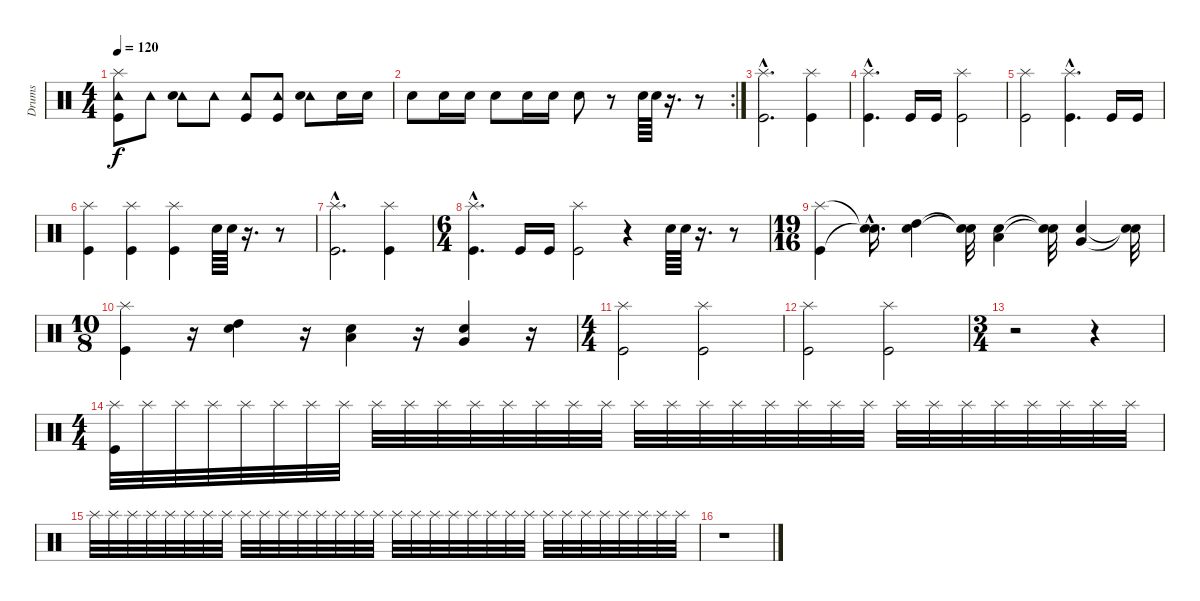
\track ("Drums" "Drums") {instrument percussion}
\staff {score}
\articulation defaults
\ts (4 4)
\tempo 120
\clef neutral
\ks c
("Tambourine (hit)" "Kick (hit)" "Splash (hit)").8{dy f} "Tambourine (hit)".8 ("Tambourine (hit)" "Snare (hit) 2").8 "Tambourine (hit)".8 ("Tambourine (hit)" "Kick (hit)").8 ("Tambourine (hit)" "Kick (hit)").8 ("Tambourine (hit)" "Snare (hit) 2").8 "Snare (hit) 2".16 "Snare (hit) 2".16 |
\rc 2 "Snare (hit) 2".8 "Snare (hit) 2".16 "Snare (hit) 2".16 "Snare (hit) 2".8 "Snare (hit) 2".16 "Snare (hit) 2".16 "Snare (hit) 2".8
r.8 "Snare (hit) 2".64 "Snare (hit) 2".64 r.16{d} r.8 |
("Splash (hit)"{hac} "Kick (hit)"{hac}).2{d} ("Splash (hit)" "Kick (hit)").4 |
("Splash (hit)"{hac} "Kick (hit)"{hac}).4{d} "Kick (hit)".16 "Kick (hit)".16 ("Splash (hit)" "Kick (hit)").2 |
("Splash (hit)" "Kick (hit)").2 ("Splash (hit)"{hac} "Kick (hit)"{hac}).4{d} "Kick (hit)".16 "Kick (hit)".16 |
("Splash (hit)" "Kick (hit)").4 ("Splash (hit)" "Kick (hit)").4 ("Splash (hit)" "Kick (hit)").4 "Snare (hit) 2".64 "Snare (hit) 2".64 r.16{d} r.8 |
("Splash (hit)"{hac} "Kick (hit)"{hac}).2{d} ("Splash (hit)" "Kick (hit)").4 |
\ts (6 4)
("Splash (hit)"{hac} "Kick (hit)"{hac}).4{d} "Kick (hit)".16 "Kick (hit)".16 ("Splash (hit)" "Kick (hit)").2 r.4 "Snare (hit) 2".64 "Snare (hit) 2".64 r.16{d} r.8 |
\ts (19 16)
("Splash (hit)" "Kick (hit)").4 ("Snare (hit)"{hac t} "Snare (hit) 2"{hac t}).16{d} ("Snare (hit) 2" "High Tom (hit)").4 ("Snare (hit)"{t} "Snare (hit)"{t}).32 ("Snare (hit) 2" "Low Tom (hit)").4 ("Snare (hit)"{t} "Snare (hit)"{t}).32 ("Snare (hit) 2" "Very Low Tom (hit)").4 ("Snare (hit)"{t} "Snare (hit)"{t}).32 |
\ts (10 8)
("Splash (hit)" "Kick (hit)").4 r.16 ("Snare (hit) 2" "High Tom (hit)").4 r.16 ("Snare (hit) 2" "Low Tom (hit)").4 r.16 ("Snare (hit) 2" "Very Low Tom (hit)").4 r.16 |
\ts (4 4)
("Splash (hit)" "Kick (hit)").2 ("Splash (hit)" "Kick (hit)").2 |
("Splash (hit)" "Kick (hit)").2 ("Splash (hit)" "Kick (hit)").2 |
\ts (3 4)
r.2 r.4 |
\ts (4 4)
("Splash (hit)" "Kick (hit)").32 "Splash (hit)".32 "Splash (hit)".32 "Splash (hit)".32 "Splash (hit)".32 "Splash (hit)".32 "Splash (hit)".32 "Splash (hit)".32 "Splash (hit)".32 "Splash (hit)".32 "Splash (hit)".32 "Splash (hit)".32 "Splash (hit)".32 "Splash (hit)".32 "Splash (hit)".32 "Splash (hit)".32 "Splash (hit)".32 "Splash (hit)".32 "Splash (hit)".32 "Splash (hit)".32 "Splash (hit)".32 "Splash (hit)".32 "Splash (hit)".32 "Splash (hit)".32 "Splash (hit)".32 "Splash (hit)".32 "Splash (hit)".32 "Splash (hit)".32 "Splash (hit)".32 "Splash (hit)".32 "Splash (hit)".32 "Splash (hit)".32 |
"Splash (hit)".32 "Splash (hit)".32 "Splash (hit)".32 "Splash (hit)".32 "Splash (hit)".32 "Splash (hit)".32 "Splash (hit)".32 "Splash (hit)".32 "Splash (hit)".32 "Splash (hit)".32 "Splash (hit)".32 "Splash (hit)".32 "Splash (hit)".32 "Splash (hit)".32 "Splash (hit)".32 "Splash (hit)".32 "Splash (hit)".32 "Splash (hit)".32 "Splash (hit)".32 "Splash (hit)".32 "Splash (hit)".32 "Splash (hit)".32 "Splash (hit)".32 "Splash (hit)".32 "Splash (hit)".32 "Splash (hit)".32 "Splash (hit)".32 "Splash (hit)".32 "Splash (hit)".32 "Splash (hit)".32 "Splash (hit)".32 "Splash (hit)".32 |
r.1
